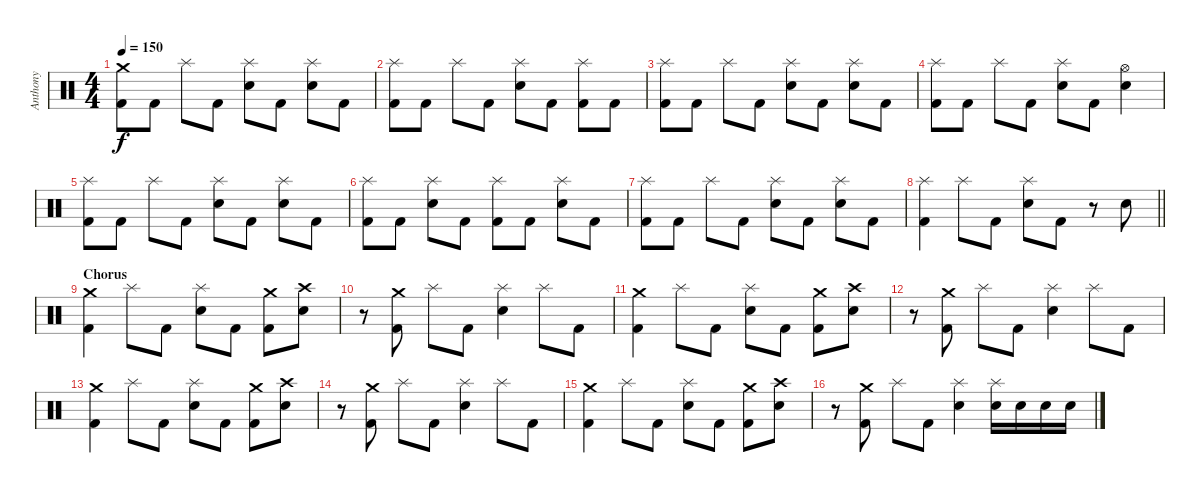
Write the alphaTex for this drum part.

\track ("Anthony" "Anthony") {instrument percussion}
\staff {score}
\articulation defaults
\ts (4 4)
\tempo 150
\clef neutral
\ks c
("Crash medium (hit)" "Kick (hit) 2").8{dy f} "Kick (hit) 2".8 "Splash (hit)".8 "Kick (hit) 2".8 ("Splash (hit)" "Electric Snare (hit)").8 "Kick (hit) 2".8 ("Splash (hit)" "Electric Snare (hit)").8 "Kick (hit) 2".8 |
("Splash (hit)" "Kick (hit) 2").8 "Kick (hit) 2".8 "Splash (hit)".8 "Kick (hit) 2".8 ("Splash (hit)" "Electric Snare (hit)").8 "Kick (hit) 2".8 ("Splash (hit)" "Kick (hit) 2").8 "Kick (hit) 2".8 |
("Splash (hit)" "Kick (hit) 2").8 "Kick (hit) 2".8 "Splash (hit)".8 "Kick (hit) 2".8 ("Splash (hit)" "Electric Snare (hit)").8 "Kick (hit) 2".8 ("Splash (hit)" "Electric Snare (hit)").8 "Kick (hit) 2".8 |
("Splash (hit)" "Kick (hit) 2").8 "Kick (hit) 2".8 "Splash (hit)".8 "Kick (hit) 2".8 ("Splash (hit)" "Electric Snare (hit)").8 "Kick (hit) 2".8 ("Hi-Hat (open)" "Electric Snare (hit)").4 |
("Splash (hit)" "Kick (hit) 2").8 "Kick (hit) 2".8 "Splash (hit)".8 "Kick (hit) 2".8 ("Splash (hit)" "Electric Snare (hit)").8 "Kick (hit) 2".8 ("Splash (hit)" "Electric Snare (hit)").8 "Kick (hit) 2".8 |
("Splash (hit)" "Kick (hit) 2").8 "Kick (hit) 2".8 ("Splash (hit)" "Electric Snare (hit)").8 "Kick (hit) 2".8 ("Splash (hit)" "Kick (hit) 2").8 "Kick (hit) 2".8 ("Splash (hit)" "Electric Snare (hit)").8 "Kick (hit) 2".8 |
("Splash (hit)" "Kick (hit) 2").8 "Kick (hit) 2".8 "Splash (hit)".8 "Kick (hit) 2".8 ("Splash (hit)" "Electric Snare (hit)").8 "Kick (hit) 2".8 ("Splash (hit)" "Electric Snare (hit)").8 "Kick (hit) 2".8 |
\barLineRight lightlight
("Splash (hit)" "Kick (hit) 2").4 "Splash (hit)".8 "Kick (hit) 2".8 ("Splash (hit)" "Electric Snare (hit)").8 "Kick (hit) 2".8 r.8 "Electric Snare (hit)".8 |
\section ("" "Chorus")
("Crash medium (hit)" "Kick (hit) 2").4 "Splash (hit)".8 "Kick (hit) 2".8 ("Splash (hit)" "Electric Snare (hit)").8 "Kick (hit) 2".8 ("Crash medium (hit)" "Kick (hit) 2").8 ("Crash high (hit)" "Electric Snare (hit)").8 |
r.8 ("Crash medium (hit)" "Kick (hit) 2").8 "Splash (hit)".8 "Kick (hit) 2".8 ("Splash (hit)" "Electric Snare (hit)").4 "Splash (hit)".8 "Kick (hit) 2".8 |
("Crash medium (hit)" "Kick (hit) 2").4 "Splash (hit)".8 "Kick (hit) 2".8 ("Splash (hit)" "Electric Snare (hit)").8 "Kick (hit) 2".8 ("Crash medium (hit)" "Kick (hit) 2").8 ("Crash high (hit)" "Electric Snare (hit)").8 |
r.8 ("Crash medium (hit)" "Kick (hit) 2").8 "Splash (hit)".8 "Kick (hit) 2".8 ("Splash (hit)" "Electric Snare (hit)").4 "Splash (hit)".8 "Kick (hit) 2".8 |
("Crash medium (hit)" "Kick (hit) 2").4 "Splash (hit)".8 "Kick (hit) 2".8 ("Splash (hit)" "Electric Snare (hit)").8 "Kick (hit) 2".8 ("Crash medium (hit)" "Kick (hit) 2").8 ("Crash high (hit)" "Electric Snare (hit)").8 |
r.8 ("Crash medium (hit)" "Kick (hit) 2").8 "Splash (hit)".8 "Kick (hit) 2".8 ("Splash (hit)" "Electric Snare (hit)").4 "Splash (hit)".8 "Kick (hit) 2".8 |
("Crash medium (hit)" "Kick (hit) 2").4 "Splash (hit)".8 "Kick (hit) 2".8 ("Splash (hit)" "Electric Snare (hit)").8 "Kick (hit) 2".8 ("Crash medium (hit)" "Kick (hit) 2").8 ("Crash high (hit)" "Electric Snare (hit)").8 |
r.8 ("Crash medium (hit)" "Kick (hit) 2").8 "Splash (hit)".8 "Kick (hit) 2".8 ("Splash (hit)" "Electric Snare (hit)").4 ("Splash (hit)" "Electric Snare (hit)").16 "Electric Snare (hit)".16 "Electric Snare (hit)".16 "Electric Snare (hit)".16
